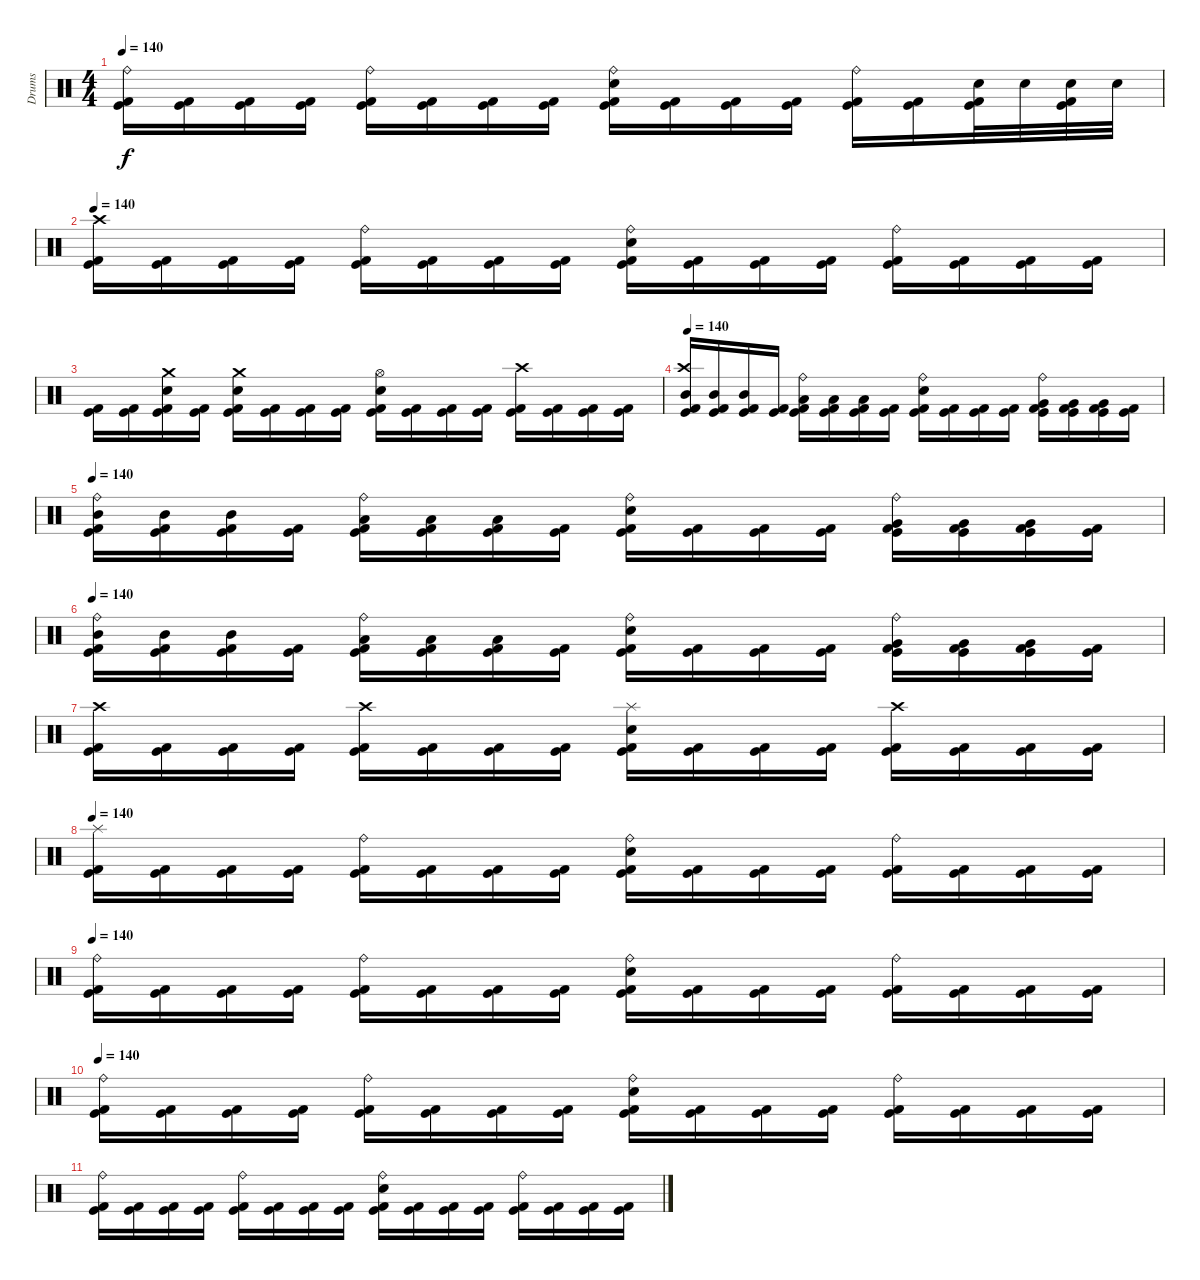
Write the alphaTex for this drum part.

\track ("Drums" "Drums") {instrument percussion}
\staff {score}
\articulation defaults
\ts (4 4)
\tempo 140
\clef neutral
\ks c
("Ride (bell)" "Kick (hit)" "Kick (hit) 2").16{dy f} ("Kick (hit)" "Kick (hit) 2").16 ("Kick (hit)" "Kick (hit) 2").16 ("Kick (hit)" "Kick (hit) 2").16 ("Ride (bell)" "Kick (hit)" "Kick (hit) 2").16 ("Kick (hit)" "Kick (hit) 2").16 ("Kick (hit)" "Kick (hit) 2").16 ("Kick (hit)" "Kick (hit) 2").16 ("Ride (bell)" "Electric Snare (hit)" "Kick (hit)" "Kick (hit) 2").16 ("Kick (hit)" "Kick (hit) 2").16 ("Kick (hit)" "Kick (hit) 2").16 ("Kick (hit)" "Kick (hit) 2").16 ("Ride (bell)" "Kick (hit)" "Kick (hit) 2").16 ("Kick (hit)" "Kick (hit) 2").16 ("Electric Snare (hit)" "Kick (hit)" "Kick (hit) 2").32 "Electric Snare (hit)".32 ("Electric Snare (hit)" "Kick (hit)" "Kick (hit) 2").32 "Electric Snare (hit)".32 |
\tempo 140
("Crash high (hit)" "Kick (hit)" "Kick (hit) 2").16 ("Kick (hit)" "Kick (hit) 2").16 ("Kick (hit)" "Kick (hit) 2").16 ("Kick (hit)" "Kick (hit) 2").16 ("Ride (bell)" "Kick (hit)" "Kick (hit) 2").16 ("Kick (hit)" "Kick (hit) 2").16 ("Kick (hit)" "Kick (hit) 2").16 ("Kick (hit)" "Kick (hit) 2").16 ("Ride (bell)" "Electric Snare (hit)" "Kick (hit)" "Kick (hit) 2").16 ("Kick (hit)" "Kick (hit) 2").16 ("Kick (hit)" "Kick (hit) 2").16 ("Kick (hit)" "Kick (hit) 2").16 ("Ride (bell)" "Kick (hit)" "Kick (hit) 2").16 ("Kick (hit)" "Kick (hit) 2").16 ("Kick (hit)" "Kick (hit) 2").16 ("Kick (hit)" "Kick (hit) 2").16 |
("Kick (hit)" "Kick (hit) 2").16 ("Kick (hit)" "Kick (hit) 2").16 ("Crash medium (hit)" "Electric Snare (hit)" "Kick (hit)" "Kick (hit) 2").16 ("Kick (hit)" "Kick (hit) 2").16 ("Crash medium (hit)" "Electric Snare (hit)" "Kick (hit)" "Kick (hit) 2").16 ("Kick (hit)" "Kick (hit) 2").16 ("Kick (hit)" "Kick (hit) 2").16 ("Kick (hit)" "Kick (hit) 2").16 ("Hi-Hat (open)" "Electric Snare (hit)" "Kick (hit)" "Kick (hit) 2").16 ("Kick (hit)" "Kick (hit) 2").16 ("Kick (hit)" "Kick (hit) 2").16 ("Kick (hit)" "Kick (hit) 2").16 ("Crash high (hit)" "Kick (hit)" "Kick (hit) 2").16 ("Kick (hit)" "Kick (hit) 2").16 ("Kick (hit)" "Kick (hit) 2").16 ("Kick (hit)" "Kick (hit) 2").16 |
\tempo 140
("Crash high (hit)" "Mid Tom (hit)" "Kick (hit)" "Kick (hit) 2").16 ("Mid Tom (hit)" "Kick (hit)" "Kick (hit) 2").16 ("Mid Tom (hit)" "Kick (hit)" "Kick (hit) 2").16 ("Kick (hit)" "Kick (hit) 2").16 ("Ride (bell)" "Low Tom (hit)" "Kick (hit)" "Kick (hit) 2").16 ("Low Tom (hit)" "Kick (hit)" "Kick (hit) 2").16 ("Low Tom (hit)" "Kick (hit)" "Kick (hit) 2").16 ("Kick (hit)" "Kick (hit) 2").16 ("Ride (bell)" "Electric Snare (hit)" "Kick (hit)" "Kick (hit) 2").16 ("Kick (hit)" "Kick (hit) 2").16 ("Kick (hit)" "Kick (hit) 2").16 ("Kick (hit)" "Kick (hit) 2").16 ("Ride (bell)" "Very Low Tom (hit)" "Kick (hit)" "Kick (hit) 2").16 ("Very Low Tom (hit)" "Kick (hit)" "Kick (hit) 2").16 ("Very Low Tom (hit)" "Kick (hit)" "Kick (hit) 2").16 ("Kick (hit)" "Kick (hit) 2").16 |
\tempo 140
("Ride (bell)" "Mid Tom (hit)" "Kick (hit)" "Kick (hit) 2").16 ("Mid Tom (hit)" "Kick (hit)" "Kick (hit) 2").16 ("Mid Tom (hit)" "Kick (hit)" "Kick (hit) 2").16 ("Kick (hit)" "Kick (hit) 2").16 ("Ride (bell)" "Low Tom (hit)" "Kick (hit)" "Kick (hit) 2").16 ("Low Tom (hit)" "Kick (hit)" "Kick (hit) 2").16 ("Low Tom (hit)" "Kick (hit)" "Kick (hit) 2").16 ("Kick (hit)" "Kick (hit) 2").16 ("Ride (bell)" "Electric Snare (hit)" "Kick (hit)" "Kick (hit) 2").16 ("Kick (hit)" "Kick (hit) 2").16 ("Kick (hit)" "Kick (hit) 2").16 ("Kick (hit)" "Kick (hit) 2").16 ("Ride (bell)" "Very Low Tom (hit)" "Kick (hit)" "Kick (hit) 2").16 ("Very Low Tom (hit)" "Kick (hit)" "Kick (hit) 2").16 ("Very Low Tom (hit)" "Kick (hit)" "Kick (hit) 2").16 ("Kick (hit)" "Kick (hit) 2").16 |
\tempo 140
("Ride (bell)" "Mid Tom (hit)" "Kick (hit)" "Kick (hit) 2").16 ("Mid Tom (hit)" "Kick (hit)" "Kick (hit) 2").16 ("Mid Tom (hit)" "Kick (hit)" "Kick (hit) 2").16 ("Kick (hit)" "Kick (hit) 2").16 ("Ride (bell)" "Low Tom (hit)" "Kick (hit)" "Kick (hit) 2").16 ("Low Tom (hit)" "Kick (hit)" "Kick (hit) 2").16 ("Low Tom (hit)" "Kick (hit)" "Kick (hit) 2").16 ("Kick (hit)" "Kick (hit) 2").16 ("Ride (bell)" "Electric Snare (hit)" "Kick (hit)" "Kick (hit) 2").16 ("Kick (hit)" "Kick (hit) 2").16 ("Kick (hit)" "Kick (hit) 2").16 ("Kick (hit)" "Kick (hit) 2").16 ("Ride (bell)" "Very Low Tom (hit)" "Kick (hit)" "Kick (hit) 2").16 ("Very Low Tom (hit)" "Kick (hit)" "Kick (hit) 2").16 ("Very Low Tom (hit)" "Kick (hit)" "Kick (hit) 2").16 ("Kick (hit)" "Kick (hit) 2").16 |
("Crash high (hit)" "Kick (hit)" "Kick (hit) 2").16 ("Kick (hit)" "Kick (hit) 2").16 ("Kick (hit)" "Kick (hit) 2").16 ("Kick (hit)" "Kick (hit) 2").16 ("Crash high (hit)" "Kick (hit)" "Kick (hit) 2").16 ("Kick (hit)" "Kick (hit) 2").16 ("Kick (hit)" "Kick (hit) 2").16 ("Kick (hit)" "Kick (hit) 2").16 ("Splash (hit)" "Electric Snare (hit)" "Kick (hit)" "Kick (hit) 2").16 ("Kick (hit)" "Kick (hit) 2").16 ("Kick (hit)" "Kick (hit) 2").16 ("Kick (hit)" "Kick (hit) 2").16 ("Crash high (hit)" "Kick (hit)" "Kick (hit) 2").16 ("Kick (hit)" "Kick (hit) 2").16 ("Kick (hit)" "Kick (hit) 2").16 ("Kick (hit)" "Kick (hit) 2").16 |
\tempo 140
("Splash (hit)" "Kick (hit)" "Kick (hit) 2").16 ("Kick (hit)" "Kick (hit) 2").16 ("Kick (hit)" "Kick (hit) 2").16 ("Kick (hit)" "Kick (hit) 2").16 ("Ride (bell)" "Kick (hit)" "Kick (hit) 2").16 ("Kick (hit)" "Kick (hit) 2").16 ("Kick (hit)" "Kick (hit) 2").16 ("Kick (hit)" "Kick (hit) 2").16 ("Ride (bell)" "Electric Snare (hit)" "Kick (hit)" "Kick (hit) 2").16 ("Kick (hit)" "Kick (hit) 2").16 ("Kick (hit)" "Kick (hit) 2").16 ("Kick (hit)" "Kick (hit) 2").16 ("Ride (bell)" "Kick (hit)" "Kick (hit) 2").16 ("Kick (hit)" "Kick (hit) 2").16 ("Kick (hit)" "Kick (hit) 2").16 ("Kick (hit)" "Kick (hit) 2").16 |
\tempo 140
("Ride (bell)" "Kick (hit)" "Kick (hit) 2").16 ("Kick (hit)" "Kick (hit) 2").16 ("Kick (hit)" "Kick (hit) 2").16 ("Kick (hit)" "Kick (hit) 2").16 ("Ride (bell)" "Kick (hit)" "Kick (hit) 2").16 ("Kick (hit)" "Kick (hit) 2").16 ("Kick (hit)" "Kick (hit) 2").16 ("Kick (hit)" "Kick (hit) 2").16 ("Ride (bell)" "Electric Snare (hit)" "Kick (hit)" "Kick (hit) 2").16 ("Kick (hit)" "Kick (hit) 2").16 ("Kick (hit)" "Kick (hit) 2").16 ("Kick (hit)" "Kick (hit) 2").16 ("Ride (bell)" "Kick (hit)" "Kick (hit) 2").16 ("Kick (hit)" "Kick (hit) 2").16 ("Kick (hit)" "Kick (hit) 2").16 ("Kick (hit)" "Kick (hit) 2").16 |
\tempo 140
("Ride (bell)" "Kick (hit)" "Kick (hit) 2").16 ("Kick (hit)" "Kick (hit) 2").16 ("Kick (hit)" "Kick (hit) 2").16 ("Kick (hit)" "Kick (hit) 2").16 ("Ride (bell)" "Kick (hit)" "Kick (hit) 2").16 ("Kick (hit)" "Kick (hit) 2").16 ("Kick (hit)" "Kick (hit) 2").16 ("Kick (hit)" "Kick (hit) 2").16 ("Ride (bell)" "Electric Snare (hit)" "Kick (hit)" "Kick (hit) 2").16 ("Kick (hit)" "Kick (hit) 2").16 ("Kick (hit)" "Kick (hit) 2").16 ("Kick (hit)" "Kick (hit) 2").16 ("Ride (bell)" "Kick (hit)" "Kick (hit) 2").16 ("Kick (hit)" "Kick (hit) 2").16 ("Kick (hit)" "Kick (hit) 2").16 ("Kick (hit)" "Kick (hit) 2").16 |
("Ride (bell)" "Kick (hit)" "Kick (hit) 2").16 ("Kick (hit)" "Kick (hit) 2").16 ("Kick (hit)" "Kick (hit) 2").16 ("Kick (hit)" "Kick (hit) 2").16 ("Ride (bell)" "Kick (hit)" "Kick (hit) 2").16 ("Kick (hit)" "Kick (hit) 2").16 ("Kick (hit)" "Kick (hit) 2").16 ("Kick (hit)" "Kick (hit) 2").16 ("Ride (bell)" "Electric Snare (hit)" "Kick (hit)" "Kick (hit) 2").16 ("Kick (hit)" "Kick (hit) 2").16 ("Kick (hit)" "Kick (hit) 2").16 ("Kick (hit)" "Kick (hit) 2").16 ("Ride (bell)" "Kick (hit)" "Kick (hit) 2").16 ("Kick (hit)" "Kick (hit) 2").16 ("Kick (hit)" "Kick (hit) 2").16 ("Kick (hit)" "Kick (hit) 2").16
